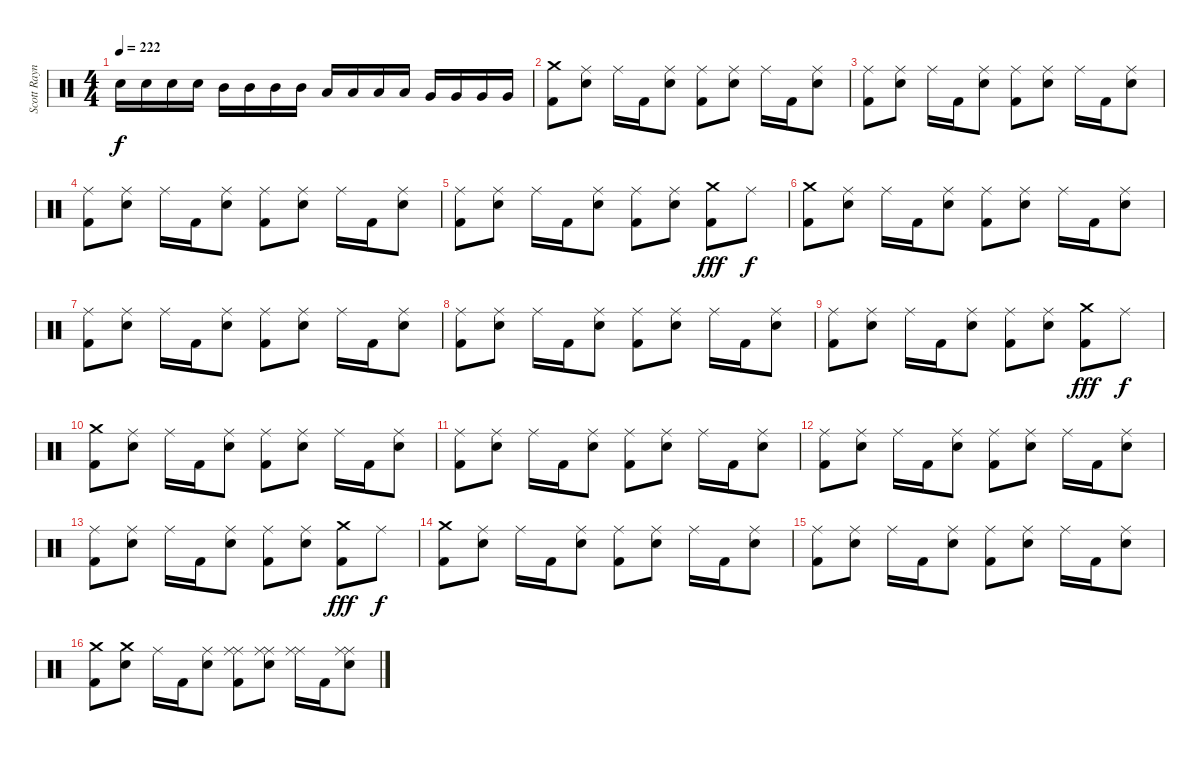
\track ("Scott Raynor - Bateria/Drums" "Scott Rayn") {instrument percussion}
\staff {score}
\articulation defaults
\ts (4 4)
\tempo 222
\clef neutral
\ks c "Electric Snare (hit)".16{dy f} "Electric Snare (hit)".16 "Electric Snare (hit)".16 "Electric Snare (hit)".16 "Mid Tom (hit)".16 "Mid Tom (hit)".16 "Mid Tom (hit)".16 "Mid Tom (hit)".16 "Low Tom (hit)".16 "Low Tom (hit)".16 "Low Tom (hit)".16 "Low Tom (hit)".16 "Very Low Tom (hit)".16 "Very Low Tom (hit)".16 "Very Low Tom (hit)".16 "Very Low Tom (hit)".16
|
("Crash medium (hit)" "Kick (hit) 2").8 ("Ride (middle)" "Electric Snare (hit)").8 "Ride (middle)".16 "Kick (hit) 2".16 ("Ride (middle)" "Electric Snare (hit)").8 ("Ride (middle)" "Kick (hit) 2").8 ("Ride (middle)" "Electric Snare (hit)").8 "Ride (middle)".16 "Kick (hit) 2".16 ("Ride (middle)" "Electric Snare (hit)").8 |
("Ride (middle)" "Kick (hit) 2").8 ("Ride (middle)" "Electric Snare (hit)").8 "Ride (middle)".16 "Kick (hit) 2".16 ("Ride (middle)" "Electric Snare (hit)").8 ("Ride (middle)" "Kick (hit) 2").8 ("Ride (middle)" "Electric Snare (hit)").8 "Ride (middle)".16 "Kick (hit) 2".16 ("Ride (middle)" "Electric Snare (hit)").8 |
("Ride (middle)" "Kick (hit) 2").8 ("Ride (middle)" "Electric Snare (hit)").8 "Ride (middle)".16 "Kick (hit) 2".16 ("Ride (middle)" "Electric Snare (hit)").8 ("Ride (middle)" "Kick (hit) 2").8 ("Ride (middle)" "Electric Snare (hit)").8 "Ride (middle)".16 "Kick (hit) 2".16 ("Ride (middle)" "Electric Snare (hit)").8 |
("Ride (middle)" "Kick (hit) 2").8 ("Ride (middle)" "Electric Snare (hit)").8 "Ride (middle)".16 "Kick (hit) 2".16 ("Ride (middle)" "Electric Snare (hit)").8 ("Ride (middle)" "Kick (hit) 2").8 ("Ride (middle)" "Electric Snare (hit)").8 ("Crash medium (hit)" "Kick (hit) 2").8{dy fff} "Ride (middle)".8{dy f} |
("Crash medium (hit)" "Kick (hit) 2").8 ("Ride (middle)" "Electric Snare (hit)").8 "Ride (middle)".16 "Kick (hit) 2".16 ("Ride (middle)" "Electric Snare (hit)").8 ("Ride (middle)" "Kick (hit) 2").8 ("Ride (middle)" "Electric Snare (hit)").8 "Ride (middle)".16 "Kick (hit) 2".16 ("Ride (middle)" "Electric Snare (hit)").8 |
("Ride (middle)" "Kick (hit) 2").8 ("Ride (middle)" "Electric Snare (hit)").8 "Ride (middle)".16 "Kick (hit) 2".16 ("Ride (middle)" "Electric Snare (hit)").8 ("Ride (middle)" "Kick (hit) 2").8 ("Ride (middle)" "Electric Snare (hit)").8 "Ride (middle)".16 "Kick (hit) 2".16 ("Ride (middle)" "Electric Snare (hit)").8 |
("Ride (middle)" "Kick (hit) 2").8 ("Ride (middle)" "Electric Snare (hit)").8 "Ride (middle)".16 "Kick (hit) 2".16 ("Ride (middle)" "Electric Snare (hit)").8 ("Ride (middle)" "Kick (hit) 2").8 ("Ride (middle)" "Electric Snare (hit)").8 "Ride (middle)".16 "Kick (hit) 2".16 ("Ride (middle)" "Electric Snare (hit)").8 |
("Ride (middle)" "Kick (hit) 2").8 ("Ride (middle)" "Electric Snare (hit)").8 "Ride (middle)".16 "Kick (hit) 2".16 ("Ride (middle)" "Electric Snare (hit)").8 ("Ride (middle)" "Kick (hit) 2").8 ("Ride (middle)" "Electric Snare (hit)").8 ("Crash medium (hit)" "Kick (hit) 2").8{dy fff} "Ride (middle)".8{dy f} |
("Crash medium (hit)" "Kick (hit) 2").8 ("Ride (middle)" "Electric Snare (hit)").8 "Ride (middle)".16 "Kick (hit) 2".16 ("Ride (middle)" "Electric Snare (hit)").8 ("Ride (middle)" "Kick (hit) 2").8 ("Ride (middle)" "Electric Snare (hit)").8 "Ride (middle)".16 "Kick (hit) 2".16 ("Ride (middle)" "Electric Snare (hit)").8 |
("Ride (middle)" "Kick (hit) 2").8 ("Ride (middle)" "Electric Snare (hit)").8 "Ride (middle)".16 "Kick (hit) 2".16 ("Ride (middle)" "Electric Snare (hit)").8 ("Ride (middle)" "Kick (hit) 2").8 ("Ride (middle)" "Electric Snare (hit)").8 "Ride (middle)".16 "Kick (hit) 2".16 ("Ride (middle)" "Electric Snare (hit)").8 |
("Ride (middle)" "Kick (hit) 2").8 ("Ride (middle)" "Electric Snare (hit)").8 "Ride (middle)".16 "Kick (hit) 2".16 ("Ride (middle)" "Electric Snare (hit)").8 ("Ride (middle)" "Kick (hit) 2").8 ("Ride (middle)" "Electric Snare (hit)").8 "Ride (middle)".16 "Kick (hit) 2".16 ("Ride (middle)" "Electric Snare (hit)").8 |
("Ride (middle)" "Kick (hit) 2").8 ("Ride (middle)" "Electric Snare (hit)").8 "Ride (middle)".16 "Kick (hit) 2".16 ("Ride (middle)" "Electric Snare (hit)").8 ("Ride (middle)" "Kick (hit) 2").8 ("Ride (middle)" "Electric Snare (hit)").8 ("Crash medium (hit)" "Kick (hit) 2").8{dy fff} "Ride (middle)".8{dy f} |
("Crash medium (hit)" "Kick (hit) 2").8 ("Ride (middle)" "Electric Snare (hit)").8 "Ride (middle)".16 "Kick (hit) 2".16 ("Ride (middle)" "Electric Snare (hit)").8 ("Ride (middle)" "Kick (hit) 2").8 ("Ride (middle)" "Electric Snare (hit)").8 "Ride (middle)".16 "Kick (hit) 2".16 ("Ride (middle)" "Electric Snare (hit)").8 |
("Ride (middle)" "Kick (hit) 2").8 ("Ride (middle)" "Electric Snare (hit)").8 "Ride (middle)".16 "Kick (hit) 2".16 ("Ride (middle)" "Electric Snare (hit)").8 ("Ride (middle)" "Kick (hit) 2").8 ("Ride (middle)" "Electric Snare (hit)").8 "Ride (middle)".16 "Kick (hit) 2".16 ("Ride (middle)" "Electric Snare (hit)").8 |
("Crash medium (hit)" "Kick (hit) 2").8 ("Crash medium (hit)" "Electric Snare (hit)").8 "Ride (middle)".16 "Kick (hit) 2".16 ("Ride (middle)" "Electric Snare (hit)").8 ("Ride (middle)" "Ride (middle)" "Kick (hit) 2").8 ("Ride (middle)" "Ride (middle)" "Electric Snare (hit)").8 ("Ride (middle)" "Ride (middle)").16 "Kick (hit) 2".16 ("Ride (middle)" "Ride (middle)" "Electric Snare (hit)").8
